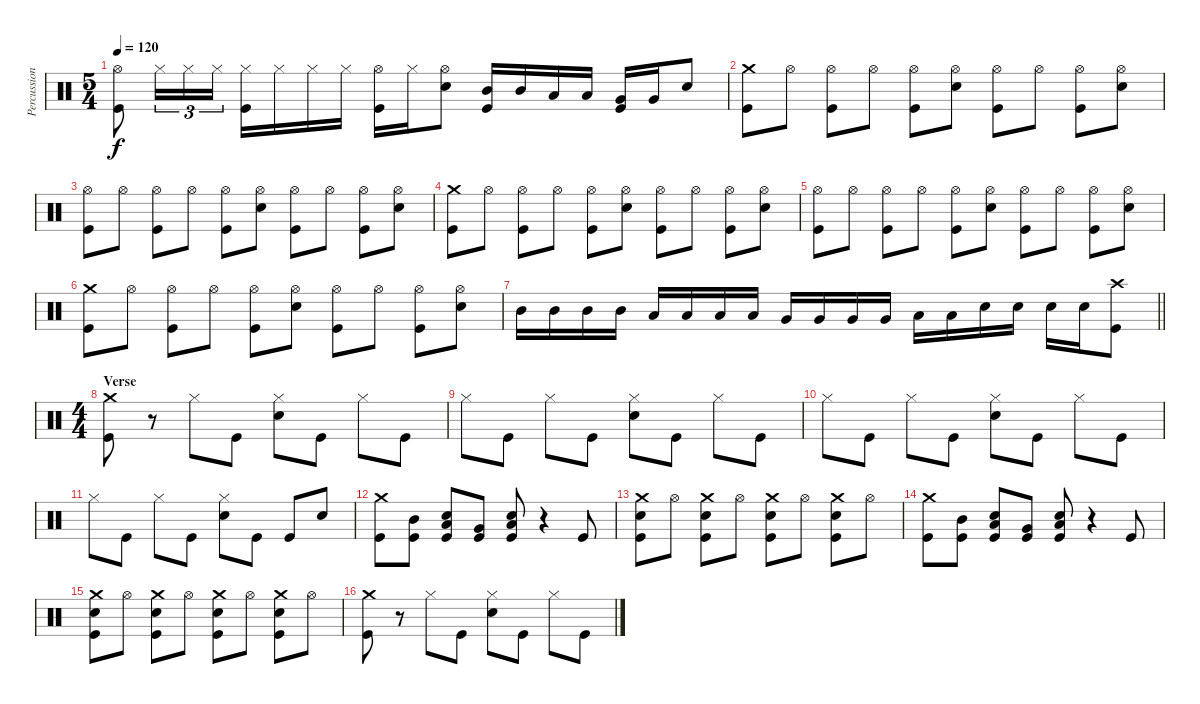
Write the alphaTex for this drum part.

\track ("Percussion" "Percussion") {instrument percussion}
\staff {score}
\articulation defaults
\ts (5 4)
\tempo 120
\clef neutral
\ks c
("Hi-Hat (open)" "Kick (hit)").8{dy f} "Hi-Hat (closed)".16{tu (3 2)} "Hi-Hat (closed)".16{tu (3 2)} "Hi-Hat (closed)".16{tu (3 2)} ("Hi-Hat (closed)" "Kick (hit)").16 "Hi-Hat (closed)".16 "Hi-Hat (closed)".16 "Hi-Hat (closed)".16 ("Hi-Hat (open)" "Kick (hit)").16 "Hi-Hat (closed)".16 ("Hi-Hat (open)" "Snare (hit) 2").8 ("Mid Tom (hit)" "Kick (hit)").16 "Mid Tom (hit)".16 "Low Tom (hit)".16 "Low Tom (hit)".16 ("Very Low Tom (hit)" "Kick (hit)").16 "Very Low Tom (hit)".16 "Snare (hit) 2".8 |
("Crash medium (hit)" "Kick (hit)").8 "Hi-Hat (open)".8 ("Hi-Hat (open)" "Kick (hit)").8 "Hi-Hat (open)".8 ("Hi-Hat (open)" "Kick (hit)").8 ("Hi-Hat (open)" "Snare (hit) 2").8 ("Hi-Hat (open)" "Kick (hit)").8 "Hi-Hat (open)".8 ("Hi-Hat (open)" "Kick (hit)").8 ("Hi-Hat (open)" "Snare (hit) 2").8 |
("Hi-Hat (open)" "Kick (hit)").8 "Hi-Hat (open)".8 ("Hi-Hat (open)" "Kick (hit)").8 "Hi-Hat (open)".8 ("Hi-Hat (open)" "Kick (hit)").8 ("Hi-Hat (open)" "Snare (hit) 2").8 ("Hi-Hat (open)" "Kick (hit)").8 "Hi-Hat (open)".8 ("Hi-Hat (open)" "Kick (hit)").8 ("Hi-Hat (open)" "Snare (hit) 2").8 |
("Crash medium (hit)" "Kick (hit)").8 "Hi-Hat (open)".8 ("Hi-Hat (open)" "Kick (hit)").8 "Hi-Hat (open)".8 ("Hi-Hat (open)" "Kick (hit)").8 ("Hi-Hat (open)" "Snare (hit) 2").8 ("Hi-Hat (open)" "Kick (hit)").8 "Hi-Hat (open)".8 ("Hi-Hat (open)" "Kick (hit)").8 ("Hi-Hat (open)" "Snare (hit) 2").8 |
("Hi-Hat (open)" "Kick (hit)").8 "Hi-Hat (open)".8 ("Hi-Hat (open)" "Kick (hit)").8 "Hi-Hat (open)".8 ("Hi-Hat (open)" "Kick (hit)").8 ("Hi-Hat (open)" "Snare (hit) 2").8 ("Hi-Hat (open)" "Kick (hit)").8 "Hi-Hat (open)".8 ("Hi-Hat (open)" "Kick (hit)").8 ("Hi-Hat (open)" "Snare (hit) 2").8 |
("Crash medium (hit)" "Kick (hit)").8 "Hi-Hat (open)".8 ("Hi-Hat (open)" "Kick (hit)").8 "Hi-Hat (open)".8 ("Hi-Hat (open)" "Kick (hit)").8 ("Hi-Hat (open)" "Snare (hit) 2").8 ("Hi-Hat (open)" "Kick (hit)").8 "Hi-Hat (open)".8 ("Hi-Hat (open)" "Kick (hit)").8 ("Hi-Hat (open)" "Snare (hit) 2").8 |
\barLineRight lightlight "Mid Tom (hit)".16 "Mid Tom (hit)".16 "Mid Tom (hit)".16 "Mid Tom (hit)".16 "Low Tom (hit)".16 "Low Tom (hit)".16 "Low Tom (hit)".16 "Low Tom (hit)".16 "Very Low Tom (hit)".16 "Very Low Tom (hit)".16 "Very Low Tom (hit)".16 "Very Low Tom (hit)".16 "Low Floor Tom (hit)".16 "Low Floor Tom (hit)".16 "Snare (hit) 2".16 "Snare (hit) 2".16 "Snare (hit) 2".16 "Snare (hit) 2".16
("Crash high (hit)" "Kick (hit)").8 |
\ts (4 4)
\section ("" "Verse")
("Crash medium (hit)" "Kick (hit)").8 r.8 "Hi-Hat (closed)".8 "Kick (hit)".8 ("Hi-Hat (closed)" "Snare (hit) 2").8 "Kick (hit)".8 "Hi-Hat (closed)".8 "Kick (hit)".8 |
"Hi-Hat (closed)".8 "Kick (hit)".8 "Hi-Hat (closed)".8 "Kick (hit)".8 ("Hi-Hat (closed)" "Snare (hit) 2").8 "Kick (hit)".8 "Hi-Hat (closed)".8 "Kick (hit)".8 |
"Hi-Hat (closed)".8 "Kick (hit)".8 "Hi-Hat (closed)".8 "Kick (hit)".8 ("Hi-Hat (closed)" "Snare (hit) 2").8 "Kick (hit)".8 "Hi-Hat (closed)".8 "Kick (hit)".8 |
"Hi-Hat (closed)".8 "Kick (hit)".8 "Hi-Hat (closed)".8 "Kick (hit)".8 ("Hi-Hat (closed)" "Snare (hit) 2").8 "Kick (hit)".8 "Kick (hit)".8 "Snare (hit) 2".8 |
("Crash medium (hit)" "Kick (hit)").8 ("Mid Tom (hit)" "Kick (hit)").8 ("Low Tom (hit)" "Snare (hit) 2" "Kick (hit)").8 ("Very Low Tom (hit)" "Kick (hit)").8 ("Low Floor Tom (hit)" "Snare (hit) 2" "Kick (hit)").8 r.4 "Kick (hit)".8 |
("Crash medium (hit)" "Snare (hit) 2" "Kick (hit)").8 "Hi-Hat (open)".8 ("Crash medium (hit)" "Snare (hit) 2" "Kick (hit)").8 "Hi-Hat (open)".8 ("Crash medium (hit)" "Snare (hit) 2" "Kick (hit)").8 "Hi-Hat (open)".8 ("Crash medium (hit)" "Snare (hit) 2" "Kick (hit)").8 "Hi-Hat (open)".8 |
("Crash medium (hit)" "Kick (hit)").8 ("Mid Tom (hit)" "Kick (hit)").8 ("Low Tom (hit)" "Snare (hit) 2" "Kick (hit)").8 ("Very Low Tom (hit)" "Kick (hit)").8 ("Low Floor Tom (hit)" "Snare (hit) 2" "Kick (hit)").8 r.4 "Kick (hit)".8 |
("Crash medium (hit)" "Snare (hit) 2" "Kick (hit)").8 "Hi-Hat (open)".8 ("Crash medium (hit)" "Snare (hit) 2" "Kick (hit)").8 "Hi-Hat (open)".8 ("Crash medium (hit)" "Snare (hit) 2" "Kick (hit)").8 "Hi-Hat (open)".8 ("Crash medium (hit)" "Snare (hit) 2" "Kick (hit)").8 "Hi-Hat (open)".8 |
("Crash medium (hit)" "Kick (hit)").8 r.8 "Hi-Hat (closed)".8 "Kick (hit)".8 ("Hi-Hat (closed)" "Snare (hit) 2").8 "Kick (hit)".8 "Hi-Hat (closed)".8 "Kick (hit)".8
